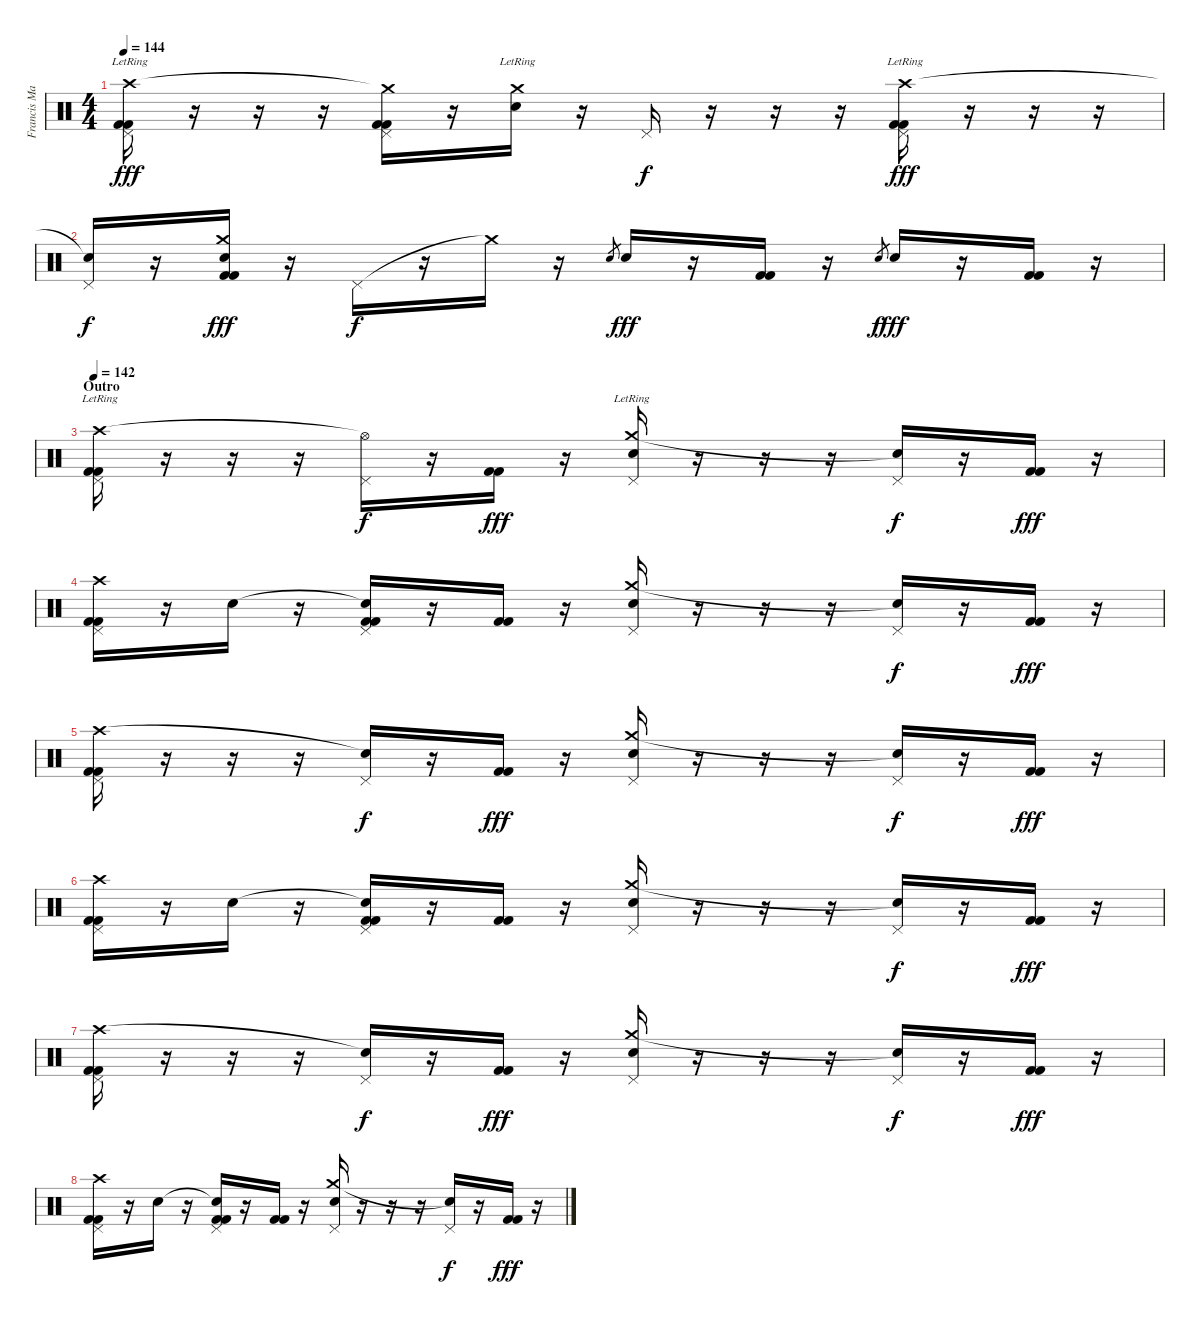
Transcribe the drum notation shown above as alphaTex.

\track ("Francis Mark" "Francis Ma") {instrument percussion}
\staff {score}
\articulation defaults
\ts (4 4)
\tempo 144
\clef neutral
\ks c
("Crash high (hit)"{lr} "Pedal Hi-Hat (hit)" "Kick (hit) 2" "Kick (hit) 2").16{dy fff} r.16 r.16 r.16 ("Crash medium (hit)"{t} "Pedal Hi-Hat (hit)" "Kick (hit) 2" "Kick (hit) 2").16 r.16 ("Crash medium (hit)"{lr} "Electric Snare (hit)").16 r.16 "Pedal Hi-Hat (hit)".16{dy f} r.16 r.16 r.16 ("Crash high (hit)"{lr} "Pedal Hi-Hat (hit)" "Kick (hit) 2" "Kick (hit) 2").16{dy fff} r.16 r.16 r.16 |
("Snare (hit)"{t} "Pedal Hi-Hat (hit)").16{dy f} r.16 ("Crash medium (hit)" "Electric Snare (hit)" "Kick (hit) 2" "Kick (hit) 2").16{dy fff} r.16 "Pedal Hi-Hat (hit)".16{dy f} r.16 "Crash medium (hit)"{t}.16 r.16 "Electric Snare (hit)".8{gr} "Electric Snare (hit)".16{dy fff} r.16 ("Kick (hit) 2" "Kick (hit) 2").16 r.16 "Electric Snare (hit)".8{gr dy f} "Electric Snare (hit)".16{dy fff} r.16 ("Kick (hit) 2" "Kick (hit) 2").16 r.16 |
\section ("" "Outro")
\tempo 142
("Crash high (hit)"{lr} "Pedal Hi-Hat (hit)" "Kick (hit) 2" "Kick (hit) 2").16 r.16 r.16 r.16 ("Hi-Hat (open)"{t} "Pedal Hi-Hat (hit)").16{dy f} r.16 ("Kick (hit) 2" "Kick (hit) 2").16{dy fff} r.16 ("Crash medium (hit)"{lr} "Pedal Hi-Hat (hit)" "Electric Snare (hit)").16 r.16 r.16 r.16 ("Snare (hit)"{t} "Pedal Hi-Hat (hit)").16{dy f} r.16 ("Kick (hit) 2" "Kick (hit) 2").16{dy fff} r.16 |
("Crash high (hit)" "Pedal Hi-Hat (hit)" "Kick (hit) 2" "Kick (hit) 2").16 r.16 "Electric Snare (hit)".16 r.16 ("Snare (hit)"{t} "Pedal Hi-Hat (hit)" "Kick (hit) 2" "Kick (hit) 2").16 r.16 ("Kick (hit) 2" "Kick (hit) 2").16 r.16 ("Crash medium (hit)" "Pedal Hi-Hat (hit)" "Electric Snare (hit)").16 r.16 r.16 r.16 ("Snare (hit)"{t} "Pedal Hi-Hat (hit)").16{dy f} r.16 ("Kick (hit) 2" "Kick (hit) 2").16{dy fff} r.16 |
("Crash high (hit)" "Pedal Hi-Hat (hit)" "Kick (hit) 2" "Kick (hit) 2").16 r.16 r.16 r.16 ("Snare (hit)"{t} "Pedal Hi-Hat (hit)").16{dy f} r.16 ("Kick (hit) 2" "Kick (hit) 2").16{dy fff} r.16 ("Crash medium (hit)" "Pedal Hi-Hat (hit)" "Electric Snare (hit)").16 r.16 r.16 r.16 ("Snare (hit)"{t} "Pedal Hi-Hat (hit)").16{dy f} r.16 ("Kick (hit) 2" "Kick (hit) 2").16{dy fff} r.16 |
("Crash high (hit)" "Pedal Hi-Hat (hit)" "Kick (hit) 2" "Kick (hit) 2").16 r.16 "Electric Snare (hit)".16 r.16 ("Snare (hit)"{t} "Pedal Hi-Hat (hit)" "Kick (hit) 2" "Kick (hit) 2").16 r.16 ("Kick (hit) 2" "Kick (hit) 2").16 r.16 ("Crash medium (hit)" "Pedal Hi-Hat (hit)" "Electric Snare (hit)").16 r.16 r.16 r.16 ("Snare (hit)"{t} "Pedal Hi-Hat (hit)").16{dy f} r.16 ("Kick (hit) 2" "Kick (hit) 2").16{dy fff} r.16 |
("Crash high (hit)" "Pedal Hi-Hat (hit)" "Kick (hit) 2" "Kick (hit) 2").16 r.16 r.16 r.16 ("Snare (hit)"{t} "Pedal Hi-Hat (hit)").16{dy f} r.16 ("Kick (hit) 2" "Kick (hit) 2").16{dy fff} r.16 ("Crash medium (hit)" "Pedal Hi-Hat (hit)" "Electric Snare (hit)").16 r.16 r.16 r.16 ("Snare (hit)"{t} "Pedal Hi-Hat (hit)").16{dy f} r.16 ("Kick (hit) 2" "Kick (hit) 2").16{dy fff} r.16 |
("Crash high (hit)" "Pedal Hi-Hat (hit)" "Kick (hit) 2" "Kick (hit) 2").16 r.16 "Electric Snare (hit)".16 r.16 ("Snare (hit)"{t} "Pedal Hi-Hat (hit)" "Kick (hit) 2" "Kick (hit) 2").16 r.16 ("Kick (hit) 2" "Kick (hit) 2").16 r.16 ("Crash medium (hit)" "Pedal Hi-Hat (hit)" "Electric Snare (hit)").16 r.16 r.16 r.16 ("Snare (hit)"{t} "Pedal Hi-Hat (hit)").16{dy f} r.16 ("Kick (hit) 2" "Kick (hit) 2").16{dy fff} r.16
